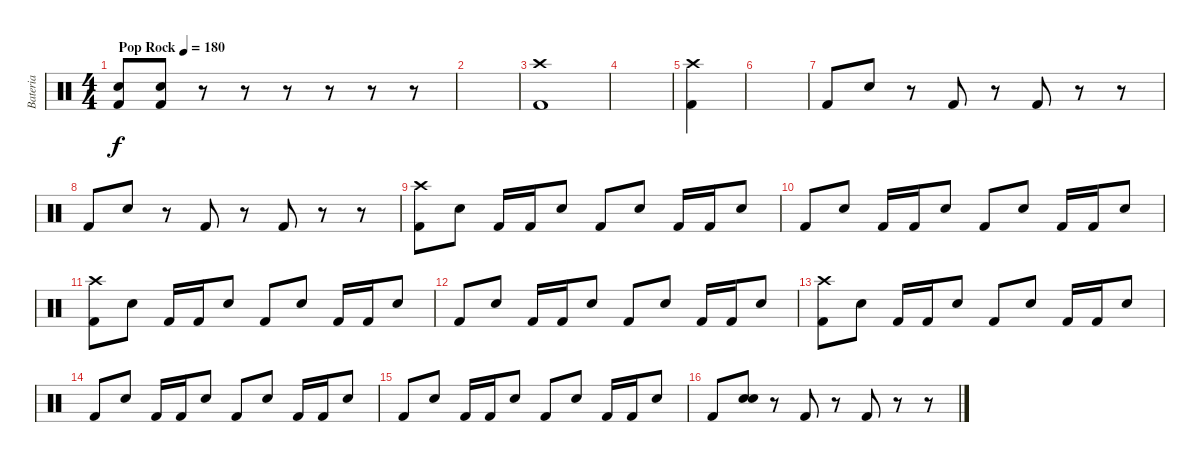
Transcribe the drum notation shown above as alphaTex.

\track ("Bateria" "Bateria") {instrument percussion}
\staff {score}
\articulation defaults
\ts (4 4)
\tempo (180 "Pop Rock")
\clef neutral
\ks c
("Kick (hit) 2" "Electric Snare (hit)").8{dy f} ("Kick (hit) 2" "Electric Snare (hit)").8 r.8 r.8 r.8 r.8 r.8 r.8 |
|
("Kick (hit) 2" "Crash high (hit)").1 |
|
("Kick (hit) 2" "Crash high (hit)").4 |
|
"Kick (hit) 2".8 "Electric Snare (hit)".8 r.8 "Kick (hit) 2".8 r.8 "Kick (hit) 2".8 r.8 r.8 |
"Kick (hit) 2".8 "Electric Snare (hit)".8 r.8 "Kick (hit) 2".8 r.8 "Kick (hit) 2".8 r.8 r.8 |
("Kick (hit) 2" "Crash high (hit)").8 "Electric Snare (hit)".8 "Kick (hit) 2".16 "Kick (hit) 2".16 "Electric Snare (hit)".8 "Kick (hit) 2".8 "Electric Snare (hit)".8 "Kick (hit) 2".16 "Kick (hit) 2".16 "Electric Snare (hit)".8 |
"Kick (hit) 2".8 "Electric Snare (hit)".8 "Kick (hit) 2".16 "Kick (hit) 2".16 "Electric Snare (hit)".8 "Kick (hit) 2".8 "Electric Snare (hit)".8 "Kick (hit) 2".16 "Kick (hit) 2".16 "Electric Snare (hit)".8 |
("Kick (hit) 2" "Crash high (hit)").8 "Electric Snare (hit)".8 "Kick (hit) 2".16 "Kick (hit) 2".16 "Electric Snare (hit)".8 "Kick (hit) 2".8 "Electric Snare (hit)".8 "Kick (hit) 2".16 "Kick (hit) 2".16 "Electric Snare (hit)".8 |
"Kick (hit) 2".8 "Electric Snare (hit)".8 "Kick (hit) 2".16 "Kick (hit) 2".16 "Electric Snare (hit)".8 "Kick (hit) 2".8 "Electric Snare (hit)".8 "Kick (hit) 2".16 "Kick (hit) 2".16 "Electric Snare (hit)".8 |
("Kick (hit) 2" "Crash high (hit)").8 "Electric Snare (hit)".8 "Kick (hit) 2".16 "Kick (hit) 2".16 "Electric Snare (hit)".8 "Kick (hit) 2".8 "Electric Snare (hit)".8 "Kick (hit) 2".16 "Kick (hit) 2".16 "Electric Snare (hit)".8 |
"Kick (hit) 2".8 "Electric Snare (hit)".8 "Kick (hit) 2".16 "Kick (hit) 2".16 "Electric Snare (hit)".8 "Kick (hit) 2".8 "Electric Snare (hit)".8 "Kick (hit) 2".16 "Kick (hit) 2".16 "Electric Snare (hit)".8 |
"Kick (hit) 2".8 "Electric Snare (hit)".8 "Kick (hit) 2".16 "Kick (hit) 2".16 "Electric Snare (hit)".8 "Kick (hit) 2".8 "Electric Snare (hit)".8 "Kick (hit) 2".16 "Kick (hit) 2".16 "Electric Snare (hit)".8 |
"Kick (hit) 2".8 ("Electric Snare (hit)" "Electric Snare (hit)").8 r.8 "Kick (hit) 2".8 r.8 "Kick (hit) 2".8 r.8 r.8
